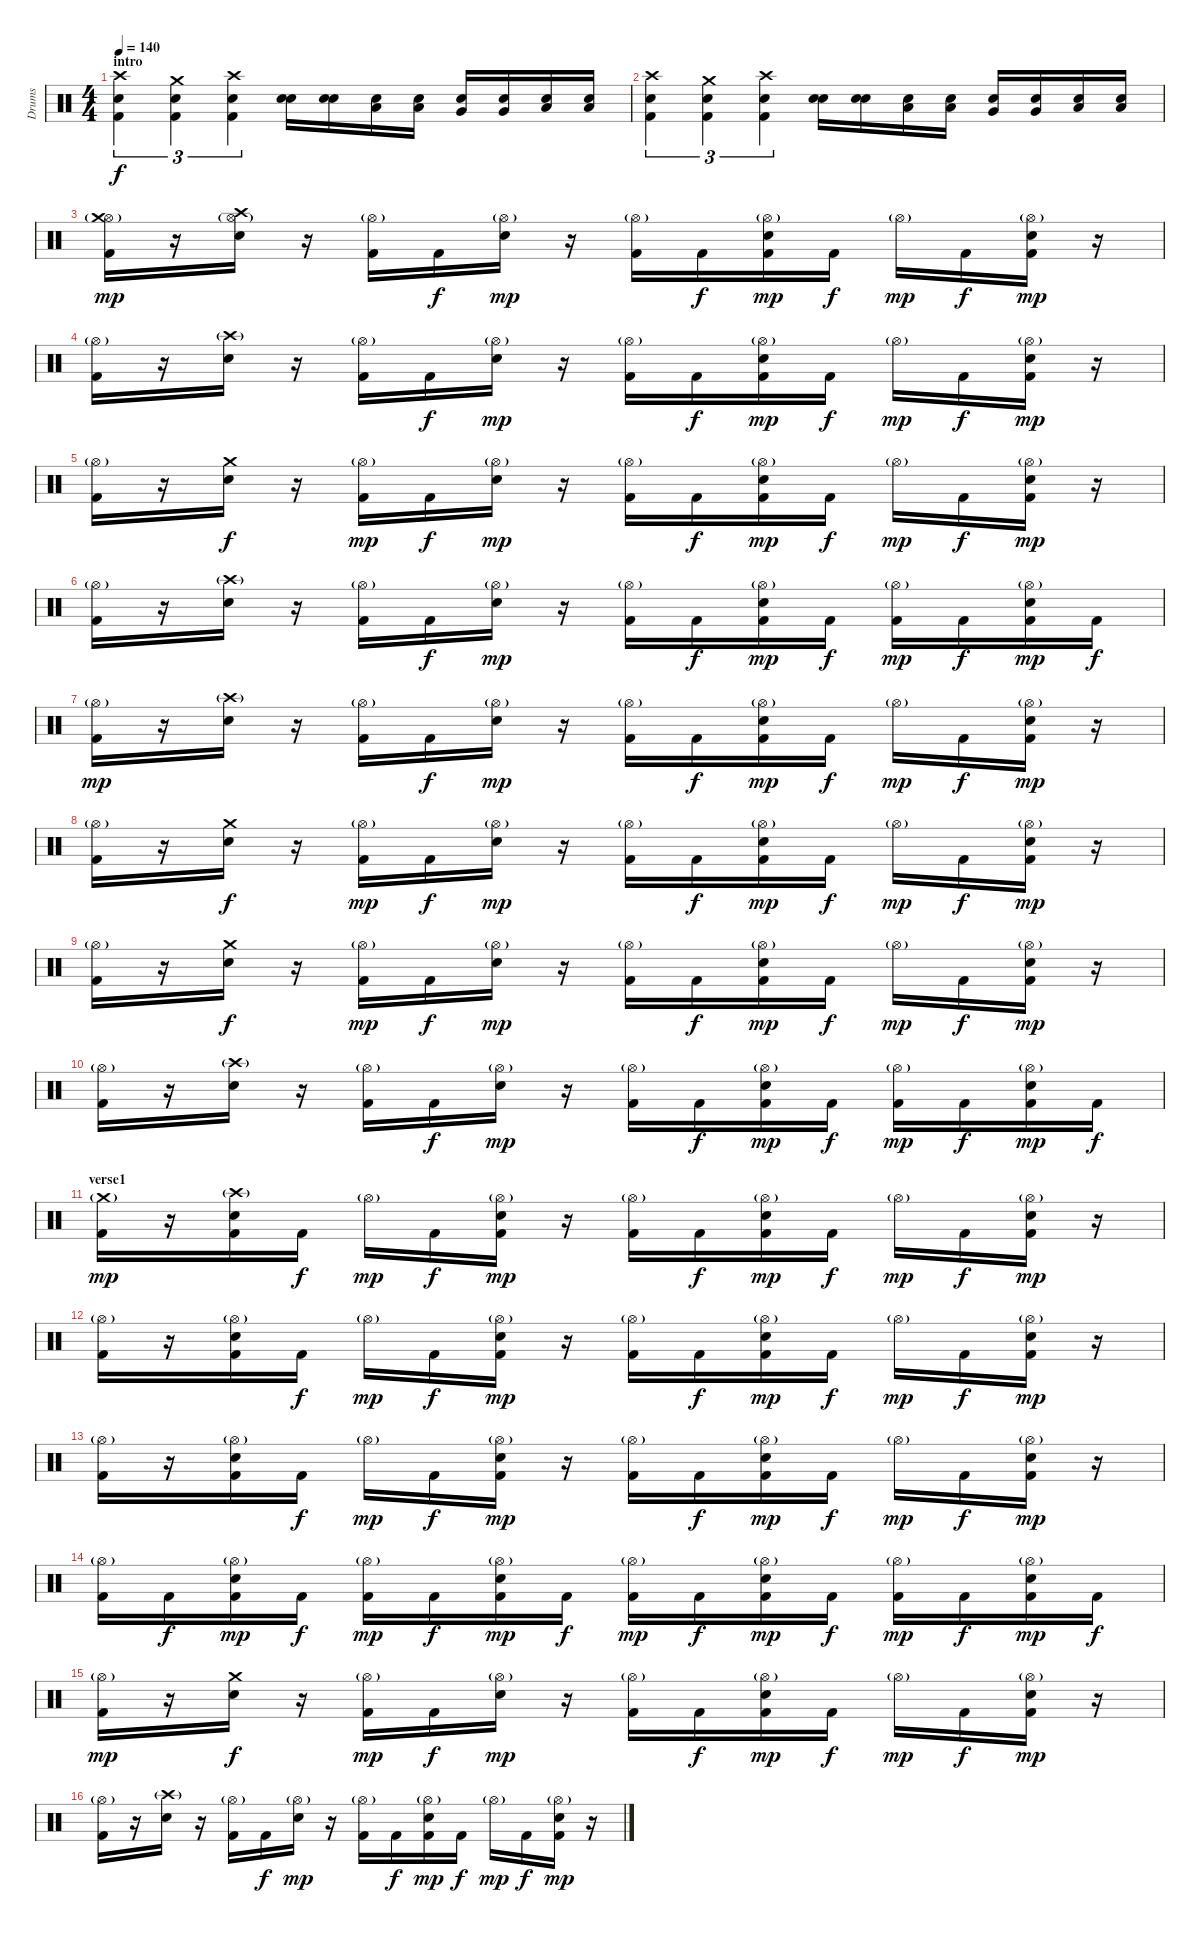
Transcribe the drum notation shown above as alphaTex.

\track ("Drums" "Drums") {instrument percussion}
\staff {score}
\articulation defaults
\ts (4 4)
\section ("" "intro")
\tempo 140
\clef neutral
\ks c
("Crash high (hit)" "Electric Snare (hit)" "Kick (hit) 2").4{tu (3 2) dy f} ("Crash medium (hit)" "Electric Snare (hit)" "Kick (hit) 2").4{tu (3 2)} ("Crash high (hit)" "Electric Snare (hit)" "Kick (hit) 2").4{tu (3 2)} ("Electric Snare (hit)" "Snare (hit) 2").16 ("Electric Snare (hit)" "Snare (hit) 2").16 ("Electric Snare (hit)" "Low Floor Tom (hit)").16 ("Electric Snare (hit)" "Low Floor Tom (hit)").16 ("Electric Snare (hit)" "Very Low Tom (hit)").16 ("Electric Snare (hit)" "Very Low Tom (hit)").16 ("Electric Snare (hit)" "Low Tom (hit)").16 ("Electric Snare (hit)" "Low Tom (hit)").16 |
("Crash high (hit)" "Electric Snare (hit)" "Kick (hit) 2").4{tu (3 2)} ("Crash medium (hit)" "Electric Snare (hit)" "Kick (hit) 2").4{tu (3 2)} ("Crash high (hit)" "Electric Snare (hit)" "Kick (hit) 2").4{tu (3 2)} ("Electric Snare (hit)" "Snare (hit) 2").16 ("Electric Snare (hit)" "Snare (hit) 2").16 ("Electric Snare (hit)" "Low Floor Tom (hit)").16 ("Electric Snare (hit)" "Low Floor Tom (hit)").16 ("Electric Snare (hit)" "Very Low Tom (hit)").16 ("Electric Snare (hit)" "Very Low Tom (hit)").16 ("Electric Snare (hit)" "Low Tom (hit)").16 ("Electric Snare (hit)" "Low Tom (hit)").16 |
("Hi-Hat (open)"{g} "Kick (hit) 2" "Crash medium (hit)").16{dy mp} r.16 ("Hi-Hat (open)"{g} "Electric Snare (hit)" "Crash high (hit)").16 r.16 ("Hi-Hat (open)"{g} "Kick (hit) 2").16 "Kick (hit) 2".16{dy f} ("Hi-Hat (open)"{g} "Electric Snare (hit)").16{dy mp} r.16 ("Hi-Hat (open)"{g} "Kick (hit) 2").16 "Kick (hit) 2".16{dy f} ("Hi-Hat (open)"{g} "Electric Snare (hit)" "Kick (hit) 2").16{dy mp} "Kick (hit) 2".16{dy f} "Hi-Hat (open)"{g}.16{dy mp} "Kick (hit) 2".16{dy f} ("Hi-Hat (open)"{g} "Electric Snare (hit)" "Kick (hit) 2").16{dy mp} r.16 |
("Hi-Hat (open)"{g} "Kick (hit) 2").16 r.16 ("Crash high (hit)"{g} "Electric Snare (hit)").16 r.16 ("Hi-Hat (open)"{g} "Kick (hit) 2").16 "Kick (hit) 2".16{dy f} ("Hi-Hat (open)"{g} "Electric Snare (hit)").16{dy mp} r.16 ("Hi-Hat (open)"{g} "Kick (hit) 2").16 "Kick (hit) 2".16{dy f} ("Hi-Hat (open)"{g} "Electric Snare (hit)" "Kick (hit) 2").16{dy mp} "Kick (hit) 2".16{dy f} "Hi-Hat (open)"{g}.16{dy mp} "Kick (hit) 2".16{dy f} ("Hi-Hat (open)"{g} "Electric Snare (hit)" "Kick (hit) 2").16{dy mp} r.16 |
("Hi-Hat (open)"{g} "Kick (hit) 2").16 r.16 ("Crash medium (hit)" "Electric Snare (hit)").16{dy f} r.16 ("Hi-Hat (open)"{g} "Kick (hit) 2").16{dy mp} "Kick (hit) 2".16{dy f} ("Hi-Hat (open)"{g} "Electric Snare (hit)").16{dy mp} r.16 ("Hi-Hat (open)"{g} "Kick (hit) 2").16 "Kick (hit) 2".16{dy f} ("Hi-Hat (open)"{g} "Electric Snare (hit)" "Kick (hit) 2").16{dy mp} "Kick (hit) 2".16{dy f} "Hi-Hat (open)"{g}.16{dy mp} "Kick (hit) 2".16{dy f} ("Hi-Hat (open)"{g} "Electric Snare (hit)" "Kick (hit) 2").16{dy mp} r.16 |
("Hi-Hat (open)"{g} "Kick (hit) 2").16 r.16 ("Crash high (hit)"{g} "Electric Snare (hit)").16 r.16 ("Hi-Hat (open)"{g} "Kick (hit) 2").16 "Kick (hit) 2".16{dy f} ("Hi-Hat (open)"{g} "Electric Snare (hit)").16{dy mp} r.16 ("Hi-Hat (open)"{g} "Kick (hit) 2").16 "Kick (hit) 2".16{dy f} ("Hi-Hat (open)"{g} "Electric Snare (hit)" "Kick (hit) 2").16{dy mp} "Kick (hit) 2".16{dy f} ("Hi-Hat (open)"{g} "Kick (hit) 2").16{dy mp} "Kick (hit) 2".16{dy f} ("Hi-Hat (open)"{g} "Electric Snare (hit)" "Kick (hit) 2").16{dy mp} "Kick (hit) 2".16{dy f} |
("Hi-Hat (open)"{g} "Kick (hit) 2").16{dy mp} r.16 ("Crash high (hit)"{g} "Electric Snare (hit)").16 r.16 ("Hi-Hat (open)"{g} "Kick (hit) 2").16 "Kick (hit) 2".16{dy f} ("Hi-Hat (open)"{g} "Electric Snare (hit)").16{dy mp} r.16 ("Hi-Hat (open)"{g} "Kick (hit) 2").16 "Kick (hit) 2".16{dy f} ("Hi-Hat (open)"{g} "Electric Snare (hit)" "Kick (hit) 2").16{dy mp} "Kick (hit) 2".16{dy f} "Hi-Hat (open)"{g}.16{dy mp} "Kick (hit) 2".16{dy f} ("Hi-Hat (open)"{g} "Electric Snare (hit)" "Kick (hit) 2").16{dy mp} r.16 |
("Hi-Hat (open)"{g} "Kick (hit) 2").16 r.16 ("Crash medium (hit)" "Electric Snare (hit)").16{dy f} r.16 ("Hi-Hat (open)"{g} "Kick (hit) 2").16{dy mp} "Kick (hit) 2".16{dy f} ("Hi-Hat (open)"{g} "Electric Snare (hit)").16{dy mp} r.16 ("Hi-Hat (open)"{g} "Kick (hit) 2").16 "Kick (hit) 2".16{dy f} ("Hi-Hat (open)"{g} "Electric Snare (hit)" "Kick (hit) 2").16{dy mp} "Kick (hit) 2".16{dy f} "Hi-Hat (open)"{g}.16{dy mp} "Kick (hit) 2".16{dy f} ("Hi-Hat (open)"{g} "Electric Snare (hit)" "Kick (hit) 2").16{dy mp} r.16 |
("Hi-Hat (open)"{g} "Kick (hit) 2").16 r.16 ("Crash medium (hit)" "Electric Snare (hit)").16{dy f} r.16 ("Hi-Hat (open)"{g} "Kick (hit) 2").16{dy mp} "Kick (hit) 2".16{dy f} ("Hi-Hat (open)"{g} "Electric Snare (hit)").16{dy mp} r.16 ("Hi-Hat (open)"{g} "Kick (hit) 2").16 "Kick (hit) 2".16{dy f} ("Hi-Hat (open)"{g} "Electric Snare (hit)" "Kick (hit) 2").16{dy mp} "Kick (hit) 2".16{dy f} "Hi-Hat (open)"{g}.16{dy mp} "Kick (hit) 2".16{dy f} ("Hi-Hat (open)"{g} "Electric Snare (hit)" "Kick (hit) 2").16{dy mp} r.16 |
("Hi-Hat (open)"{g} "Kick (hit) 2").16 r.16 ("Crash high (hit)"{g} "Electric Snare (hit)").16 r.16 ("Hi-Hat (open)"{g} "Kick (hit) 2").16 "Kick (hit) 2".16{dy f} ("Hi-Hat (open)"{g} "Electric Snare (hit)").16{dy mp} r.16 ("Hi-Hat (open)"{g} "Kick (hit) 2").16 "Kick (hit) 2".16{dy f} ("Hi-Hat (open)"{g} "Electric Snare (hit)" "Kick (hit) 2").16{dy mp} "Kick (hit) 2".16{dy f} ("Hi-Hat (open)"{g} "Kick (hit) 2").16{dy mp} "Kick (hit) 2".16{dy f} ("Hi-Hat (open)"{g} "Electric Snare (hit)" "Kick (hit) 2").16{dy mp} "Kick (hit) 2".16{dy f} |
\section ("" "verse1")
("Crash medium (hit)"{g} "Kick (hit) 2").16{dy mp} r.16 ("Crash high (hit)"{g} "Electric Snare (hit)" "Kick (hit) 2").16 "Kick (hit) 2".16{dy f} "Hi-Hat (open)"{g}.16{dy mp} "Kick (hit) 2".16{dy f} ("Hi-Hat (open)"{g} "Electric Snare (hit)" "Kick (hit) 2").16{dy mp} r.16 ("Hi-Hat (open)"{g} "Kick (hit) 2").16 "Kick (hit) 2".16{dy f} ("Hi-Hat (open)"{g} "Electric Snare (hit)" "Kick (hit) 2").16{dy mp} "Kick (hit) 2".16{dy f} "Hi-Hat (open)"{g}.16{dy mp} "Kick (hit) 2".16{dy f} ("Hi-Hat (open)"{g} "Electric Snare (hit)" "Kick (hit) 2").16{dy mp} r.16 |
("Hi-Hat (open)"{g} "Kick (hit) 2").16 r.16 ("Hi-Hat (open)"{g} "Electric Snare (hit)" "Kick (hit) 2").16 "Kick (hit) 2".16{dy f} "Hi-Hat (open)"{g}.16{dy mp} "Kick (hit) 2".16{dy f} ("Hi-Hat (open)"{g} "Electric Snare (hit)" "Kick (hit) 2").16{dy mp} r.16 ("Hi-Hat (open)"{g} "Kick (hit) 2").16 "Kick (hit) 2".16{dy f} ("Hi-Hat (open)"{g} "Electric Snare (hit)" "Kick (hit) 2").16{dy mp} "Kick (hit) 2".16{dy f} "Hi-Hat (open)"{g}.16{dy mp} "Kick (hit) 2".16{dy f} ("Hi-Hat (open)"{g} "Electric Snare (hit)" "Kick (hit) 2").16{dy mp} r.16 |
("Hi-Hat (open)"{g} "Kick (hit) 2").16 r.16 ("Hi-Hat (open)"{g} "Electric Snare (hit)" "Kick (hit) 2").16 "Kick (hit) 2".16{dy f} "Hi-Hat (open)"{g}.16{dy mp} "Kick (hit) 2".16{dy f} ("Hi-Hat (open)"{g} "Electric Snare (hit)" "Kick (hit) 2").16{dy mp} r.16 ("Hi-Hat (open)"{g} "Kick (hit) 2").16 "Kick (hit) 2".16{dy f} ("Hi-Hat (open)"{g} "Electric Snare (hit)" "Kick (hit) 2").16{dy mp} "Kick (hit) 2".16{dy f} "Hi-Hat (open)"{g}.16{dy mp} "Kick (hit) 2".16{dy f} ("Hi-Hat (open)"{g} "Electric Snare (hit)" "Kick (hit) 2").16{dy mp} r.16 |
("Hi-Hat (open)"{g} "Kick (hit) 2").16 "Kick (hit) 2".16{dy f} ("Hi-Hat (open)"{g} "Electric Snare (hit)" "Kick (hit) 2").16{dy mp} "Kick (hit) 2".16{dy f} ("Hi-Hat (open)"{g} "Kick (hit) 2").16{dy mp} "Kick (hit) 2".16{dy f} ("Hi-Hat (open)"{g} "Electric Snare (hit)" "Kick (hit) 2").16{dy mp} "Kick (hit) 2".16{dy f} ("Hi-Hat (open)"{g} "Kick (hit) 2").16{dy mp} "Kick (hit) 2".16{dy f} ("Hi-Hat (open)"{g} "Electric Snare (hit)" "Kick (hit) 2").16{dy mp} "Kick (hit) 2".16{dy f} ("Hi-Hat (open)"{g} "Kick (hit) 2").16{dy mp} "Kick (hit) 2".16{dy f} ("Hi-Hat (open)"{g} "Electric Snare (hit)" "Kick (hit) 2").16{dy mp} "Kick (hit) 2".16{dy f} |
("Hi-Hat (open)"{g} "Kick (hit) 2").16{dy mp} r.16 ("Crash medium (hit)" "Electric Snare (hit)").16{dy f} r.16 ("Hi-Hat (open)"{g} "Kick (hit) 2").16{dy mp} "Kick (hit) 2".16{dy f} ("Hi-Hat (open)"{g} "Electric Snare (hit)").16{dy mp} r.16 ("Hi-Hat (open)"{g} "Kick (hit) 2").16 "Kick (hit) 2".16{dy f} ("Hi-Hat (open)"{g} "Electric Snare (hit)" "Kick (hit) 2").16{dy mp} "Kick (hit) 2".16{dy f} "Hi-Hat (open)"{g}.16{dy mp} "Kick (hit) 2".16{dy f} ("Hi-Hat (open)"{g} "Electric Snare (hit)" "Kick (hit) 2").16{dy mp} r.16 |
("Hi-Hat (open)"{g} "Kick (hit) 2").16 r.16 ("Crash high (hit)"{g} "Electric Snare (hit)").16 r.16 ("Hi-Hat (open)"{g} "Kick (hit) 2").16 "Kick (hit) 2".16{dy f} ("Hi-Hat (open)"{g} "Electric Snare (hit)").16{dy mp} r.16 ("Hi-Hat (open)"{g} "Kick (hit) 2").16 "Kick (hit) 2".16{dy f} ("Hi-Hat (open)"{g} "Electric Snare (hit)" "Kick (hit) 2").16{dy mp} "Kick (hit) 2".16{dy f} "Hi-Hat (open)"{g}.16{dy mp} "Kick (hit) 2".16{dy f} ("Hi-Hat (open)"{g} "Electric Snare (hit)" "Kick (hit) 2").16{dy mp} r.16
